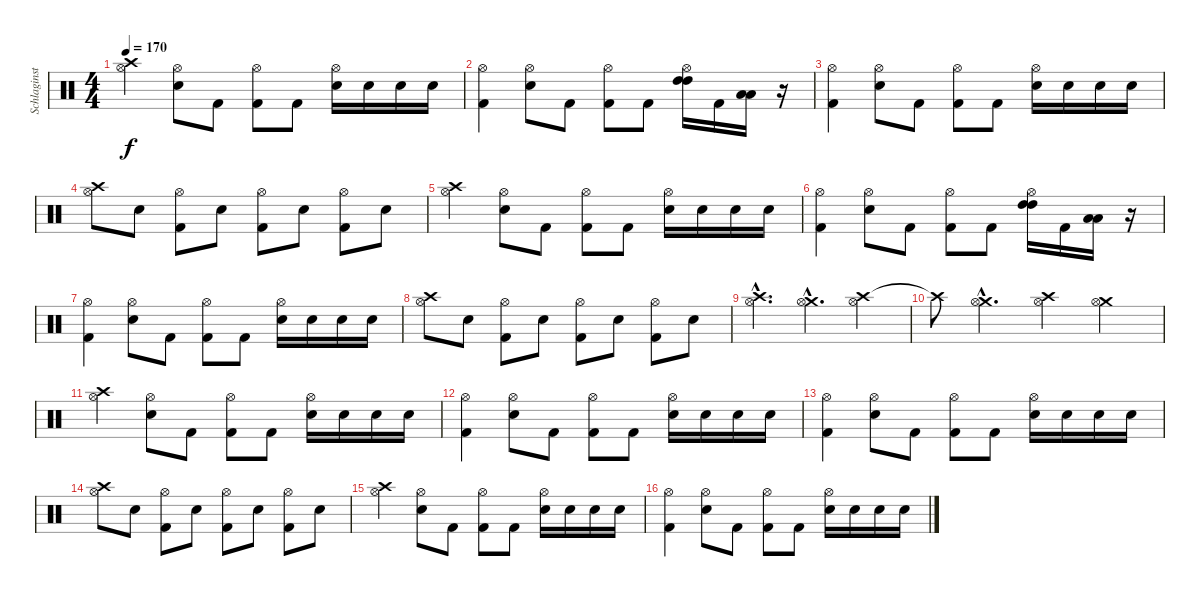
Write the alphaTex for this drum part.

\track ("Schlaginstrumente - Auswahl" "Schlaginst") {instrument percussion}
\staff {score}
\articulation defaults
\ts (4 4)
\tempo 170
\clef neutral
\ks c
("Hi-Hat (open)" "Crash high (hit)").4{dy f} ("Hi-Hat (open)" "Electric Snare (hit)").8 "Kick (hit) 2".8 ("Hi-Hat (open)" "Kick (hit) 2").8 "Kick (hit) 2".8 ("Hi-Hat (open)" "Electric Snare (hit)").16 "Electric Snare (hit)".16 "Electric Snare (hit)".16 "Electric Snare (hit)".16 |
("Hi-Hat (open)" "Kick (hit) 2").4 ("Hi-Hat (open)" "Electric Snare (hit)").8 "Kick (hit) 2".8 ("Hi-Hat (open)" "Kick (hit) 2").8 "Kick (hit) 2".8 ("Hi-Hat (open)" "High Tom (hit)" "High Tom (hit)").16 "Kick (hit) 2".16 ("Low Tom (hit)" "Low Tom (hit)").16 r.16 |
("Hi-Hat (open)" "Kick (hit) 2").4 ("Hi-Hat (open)" "Electric Snare (hit)").8 "Kick (hit) 2".8 ("Hi-Hat (open)" "Kick (hit) 2").8 "Kick (hit) 2".8 ("Hi-Hat (open)" "Electric Snare (hit)").16 "Electric Snare (hit)".16 "Electric Snare (hit)".16 "Electric Snare (hit)".16 |
("Hi-Hat (open)" "Crash high (hit)").8 "Electric Snare (hit)".8 ("Hi-Hat (open)" "Kick (hit) 2").8 "Electric Snare (hit)".8 ("Hi-Hat (open)" "Kick (hit) 2").8 "Electric Snare (hit)".8 ("Hi-Hat (open)" "Kick (hit) 2").8 "Electric Snare (hit)".8 |
("Hi-Hat (open)" "Crash high (hit)").4 ("Hi-Hat (open)" "Electric Snare (hit)").8 "Kick (hit) 2".8 ("Hi-Hat (open)" "Kick (hit) 2").8 "Kick (hit) 2".8 ("Hi-Hat (open)" "Electric Snare (hit)").16 "Electric Snare (hit)".16 "Electric Snare (hit)".16 "Electric Snare (hit)".16 |
("Hi-Hat (open)" "Kick (hit) 2").4 ("Hi-Hat (open)" "Electric Snare (hit)").8 "Kick (hit) 2".8 ("Hi-Hat (open)" "Kick (hit) 2").8 "Kick (hit) 2".8 ("Hi-Hat (open)" "High Tom (hit)" "High Tom (hit)").16 "Kick (hit) 2".16 ("Low Tom (hit)" "Low Tom (hit)").16 r.16 |
("Hi-Hat (open)" "Kick (hit) 2").4 ("Hi-Hat (open)" "Electric Snare (hit)").8 "Kick (hit) 2".8 ("Hi-Hat (open)" "Kick (hit) 2").8 "Kick (hit) 2".8 ("Hi-Hat (open)" "Electric Snare (hit)").16 "Electric Snare (hit)".16 "Electric Snare (hit)".16 "Electric Snare (hit)".16 |
("Hi-Hat (open)" "Crash high (hit)").8 "Electric Snare (hit)".8 ("Hi-Hat (open)" "Kick (hit) 2").8 "Electric Snare (hit)".8 ("Hi-Hat (open)" "Kick (hit) 2").8 "Electric Snare (hit)".8 ("Hi-Hat (open)" "Kick (hit) 2").8 "Electric Snare (hit)".8 |
("Crash high (hit)"{hac} "Hi-Hat (open)"{hac}).4{d} ("Crash medium (hit)"{hac} "Hi-Hat (open)"{hac}).4{d} ("Crash high (hit)" "Hi-Hat (open)").4 |
"Crash high (hit)"{t}.8 ("Crash medium (hit)"{hac} "Hi-Hat (open)"{hac}).4{d} ("Crash high (hit)" "Hi-Hat (open)").4 ("Crash medium (hit)" "Hi-Hat (open)").4 |
("Hi-Hat (open)" "Crash high (hit)").4 ("Hi-Hat (open)" "Electric Snare (hit)").8 "Kick (hit) 2".8 ("Hi-Hat (open)" "Kick (hit) 2").8 "Kick (hit) 2".8 ("Hi-Hat (open)" "Electric Snare (hit)").16 "Electric Snare (hit)".16 "Electric Snare (hit)".16 "Electric Snare (hit)".16 |
("Hi-Hat (open)" "Kick (hit) 2").4 ("Hi-Hat (open)" "Electric Snare (hit)").8 "Kick (hit) 2".8 ("Hi-Hat (open)" "Kick (hit) 2").8 "Kick (hit) 2".8 ("Hi-Hat (open)" "Electric Snare (hit)").16 "Electric Snare (hit)".16 "Electric Snare (hit)".16 "Electric Snare (hit)".16 |
("Hi-Hat (open)" "Kick (hit) 2").4 ("Hi-Hat (open)" "Electric Snare (hit)").8 "Kick (hit) 2".8 ("Hi-Hat (open)" "Kick (hit) 2").8 "Kick (hit) 2".8 ("Hi-Hat (open)" "Electric Snare (hit)").16 "Electric Snare (hit)".16 "Electric Snare (hit)".16 "Electric Snare (hit)".16 |
("Hi-Hat (open)" "Crash high (hit)").8 "Electric Snare (hit)".8 ("Hi-Hat (open)" "Kick (hit) 2").8 "Electric Snare (hit)".8 ("Hi-Hat (open)" "Kick (hit) 2").8 "Electric Snare (hit)".8 ("Hi-Hat (open)" "Kick (hit) 2").8 "Electric Snare (hit)".8 |
("Hi-Hat (open)" "Crash high (hit)").4 ("Hi-Hat (open)" "Electric Snare (hit)").8 "Kick (hit) 2".8 ("Hi-Hat (open)" "Kick (hit) 2").8 "Kick (hit) 2".8 ("Hi-Hat (open)" "Electric Snare (hit)").16 "Electric Snare (hit)".16 "Electric Snare (hit)".16 "Electric Snare (hit)".16 |
("Hi-Hat (open)" "Kick (hit) 2").4 ("Hi-Hat (open)" "Electric Snare (hit)").8 "Kick (hit) 2".8 ("Hi-Hat (open)" "Kick (hit) 2").8 "Kick (hit) 2".8 ("Hi-Hat (open)" "Electric Snare (hit)").16 "Electric Snare (hit)".16 "Electric Snare (hit)".16 "Electric Snare (hit)".16
